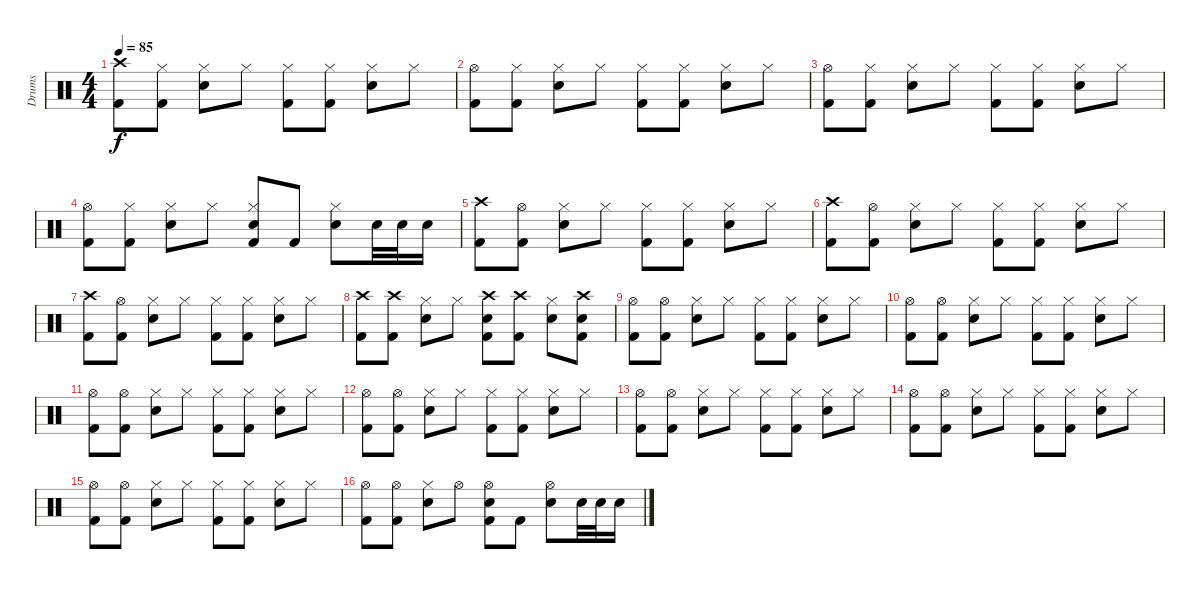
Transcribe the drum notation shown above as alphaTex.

\track ("Drums" "Drums") {instrument percussion}
\staff {score}
\articulation defaults
\ts (4 4)
\tempo 85
\clef neutral
\ks c
("Crash high (hit)" "Kick (hit) 2").8{dy f} ("Hi-Hat (closed)" "Kick (hit) 2").8 ("Hi-Hat (closed)" "Electric Snare (hit)").8 "Hi-Hat (closed)".8 ("Hi-Hat (closed)" "Kick (hit) 2").8 ("Hi-Hat (closed)" "Kick (hit) 2").8 ("Hi-Hat (closed)" "Electric Snare (hit)").8 "Hi-Hat (closed)".8 |
("Hi-Hat (open)" "Kick (hit) 2").8 ("Hi-Hat (closed)" "Kick (hit) 2").8 ("Hi-Hat (closed)" "Electric Snare (hit)").8 "Hi-Hat (closed)".8 ("Hi-Hat (closed)" "Kick (hit) 2").8 ("Hi-Hat (closed)" "Kick (hit) 2").8 ("Hi-Hat (closed)" "Electric Snare (hit)").8 "Hi-Hat (closed)".8 |
("Hi-Hat (open)" "Kick (hit) 2").8 ("Hi-Hat (closed)" "Kick (hit) 2").8 ("Hi-Hat (closed)" "Electric Snare (hit)").8 "Hi-Hat (closed)".8 ("Hi-Hat (closed)" "Kick (hit) 2").8 ("Hi-Hat (closed)" "Kick (hit) 2").8 ("Hi-Hat (closed)" "Electric Snare (hit)").8 "Hi-Hat (closed)".8 |
("Hi-Hat (open)" "Kick (hit) 2").8 ("Hi-Hat (closed)" "Kick (hit) 2").8 ("Hi-Hat (closed)" "Electric Snare (hit)").8 "Hi-Hat (closed)".8 ("Hi-Hat (closed)" "Electric Snare (hit)" "Kick (hit) 2").8 "Kick (hit) 2".8 ("Hi-Hat (closed)" "Electric Snare (hit)").8 "Electric Snare (hit)".32 "Electric Snare (hit)".32 "Electric Snare (hit)".16 |
("Crash high (hit)" "Kick (hit) 2").8 ("Hi-Hat (open)" "Kick (hit) 2").8 ("Hi-Hat (closed)" "Electric Snare (hit)").8 "Hi-Hat (closed)".8 ("Hi-Hat (closed)" "Kick (hit) 2").8 ("Hi-Hat (closed)" "Kick (hit) 2").8 ("Hi-Hat (closed)" "Electric Snare (hit)").8 "Hi-Hat (closed)".8 |
("Crash high (hit)" "Kick (hit) 2").8 ("Hi-Hat (open)" "Kick (hit) 2").8 ("Hi-Hat (closed)" "Electric Snare (hit)").8 "Hi-Hat (closed)".8 ("Hi-Hat (closed)" "Kick (hit) 2").8 ("Hi-Hat (closed)" "Kick (hit) 2").8 ("Hi-Hat (closed)" "Electric Snare (hit)").8 "Hi-Hat (closed)".8 |
("Crash high (hit)" "Kick (hit) 2").8 ("Hi-Hat (open)" "Kick (hit) 2").8 ("Hi-Hat (closed)" "Electric Snare (hit)").8 "Hi-Hat (closed)".8 ("Hi-Hat (closed)" "Kick (hit) 2").8 ("Hi-Hat (closed)" "Kick (hit) 2").8 ("Hi-Hat (closed)" "Electric Snare (hit)").8 "Hi-Hat (closed)".8 |
("Crash high (hit)" "Kick (hit) 2").8 ("Crash high (hit)" "Kick (hit) 2").8 ("Hi-Hat (closed)" "Electric Snare (hit)").8 "Hi-Hat (closed)".8 ("Crash high (hit)" "Electric Snare (hit)" "Kick (hit) 2").8 ("Crash high (hit)" "Kick (hit) 2").8 ("Hi-Hat (closed)" "Electric Snare (hit)").8 ("Crash high (hit)" "Electric Snare (hit)" "Kick (hit) 2").8 |
("Hi-Hat (open)" "Kick (hit) 2").8 ("Hi-Hat (open)" "Kick (hit) 2").8 ("Hi-Hat (closed)" "Electric Snare (hit)").8 "Hi-Hat (closed)".8 ("Hi-Hat (closed)" "Kick (hit) 2").8 ("Hi-Hat (closed)" "Kick (hit) 2").8 ("Hi-Hat (closed)" "Electric Snare (hit)").8 "Hi-Hat (closed)".8 |
("Hi-Hat (open)" "Kick (hit) 2").8 ("Hi-Hat (open)" "Kick (hit) 2").8 ("Hi-Hat (closed)" "Electric Snare (hit)").8 "Hi-Hat (closed)".8 ("Hi-Hat (closed)" "Kick (hit) 2").8 ("Hi-Hat (closed)" "Kick (hit) 2").8 ("Hi-Hat (closed)" "Electric Snare (hit)").8 "Hi-Hat (closed)".8 |
("Hi-Hat (open)" "Kick (hit) 2").8 ("Hi-Hat (open)" "Kick (hit) 2").8 ("Hi-Hat (closed)" "Electric Snare (hit)").8 "Hi-Hat (closed)".8 ("Hi-Hat (closed)" "Kick (hit) 2").8 ("Hi-Hat (closed)" "Kick (hit) 2").8 ("Hi-Hat (closed)" "Electric Snare (hit)").8 "Hi-Hat (closed)".8 |
("Hi-Hat (open)" "Kick (hit) 2").8 ("Hi-Hat (open)" "Kick (hit) 2").8 ("Hi-Hat (closed)" "Electric Snare (hit)").8 "Hi-Hat (closed)".8 ("Hi-Hat (closed)" "Kick (hit) 2").8 ("Hi-Hat (closed)" "Kick (hit) 2").8 ("Hi-Hat (closed)" "Electric Snare (hit)").8 "Hi-Hat (closed)".8 |
("Hi-Hat (open)" "Kick (hit) 2").8 ("Hi-Hat (open)" "Kick (hit) 2").8 ("Hi-Hat (closed)" "Electric Snare (hit)").8 "Hi-Hat (closed)".8 ("Hi-Hat (closed)" "Kick (hit) 2").8 ("Hi-Hat (closed)" "Kick (hit) 2").8 ("Hi-Hat (closed)" "Electric Snare (hit)").8 "Hi-Hat (closed)".8 |
("Hi-Hat (open)" "Kick (hit) 2").8 ("Hi-Hat (open)" "Kick (hit) 2").8 ("Hi-Hat (closed)" "Electric Snare (hit)").8 "Hi-Hat (closed)".8 ("Hi-Hat (closed)" "Kick (hit) 2").8 ("Hi-Hat (closed)" "Kick (hit) 2").8 ("Hi-Hat (closed)" "Electric Snare (hit)").8 "Hi-Hat (closed)".8 |
("Hi-Hat (open)" "Kick (hit) 2").8 ("Hi-Hat (open)" "Kick (hit) 2").8 ("Hi-Hat (closed)" "Electric Snare (hit)").8 "Hi-Hat (closed)".8 ("Hi-Hat (closed)" "Kick (hit) 2").8 ("Hi-Hat (closed)" "Kick (hit) 2").8 ("Hi-Hat (closed)" "Electric Snare (hit)").8 "Hi-Hat (closed)".8 |
("Hi-Hat (open)" "Kick (hit) 2").8 ("Hi-Hat (open)" "Kick (hit) 2").8 ("Hi-Hat (closed)" "Electric Snare (hit)").8 "Hi-Hat (open)".8 ("Hi-Hat (open)" "Electric Snare (hit)" "Kick (hit) 2").8 "Kick (hit) 2".8 ("Hi-Hat (open)" "Electric Snare (hit)").8 "Electric Snare (hit)".32 "Electric Snare (hit)".32 "Electric Snare (hit)".16
